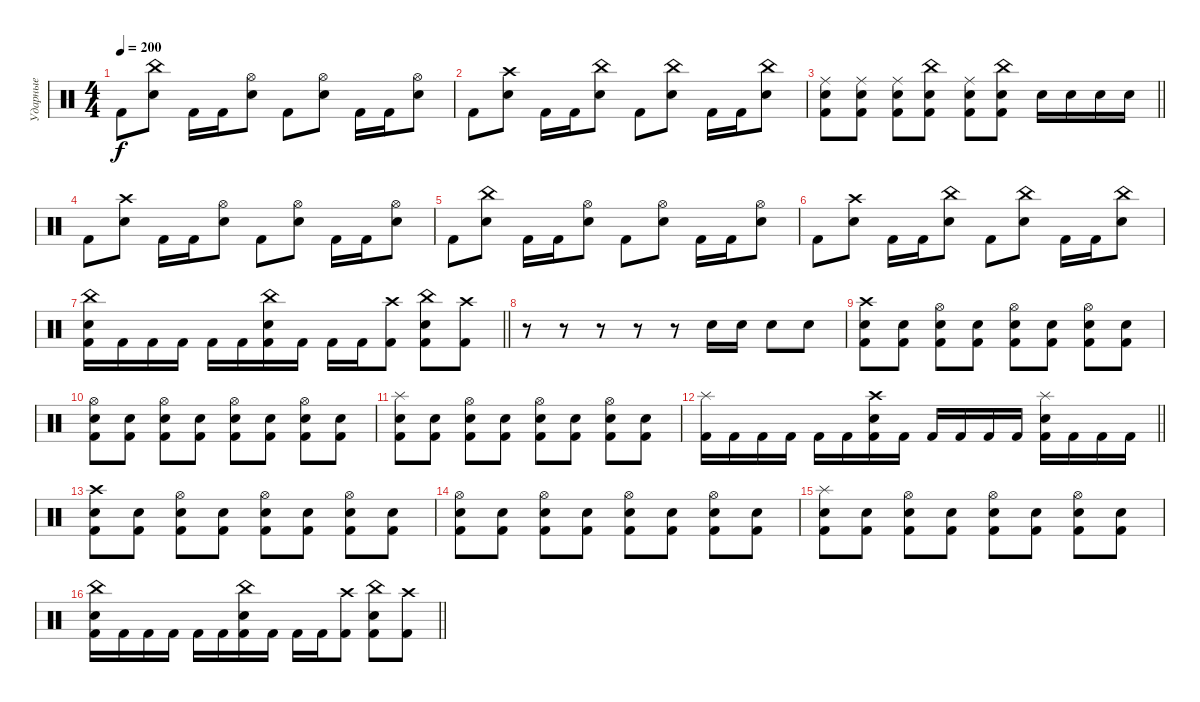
\track ("Ударные" "Ударные") {instrument percussion}
\staff {score}
\articulation defaults
\ts (4 4)
\tempo 200
\clef neutral
\ks c "Kick (hit) 2".8{dy f}
("Electric Snare (hit)" "China (hit)").8 "Kick (hit) 2".16 "Kick (hit) 2".16 ("Electric Snare (hit)" "Hi-Hat (open)").8 "Kick (hit) 2".8 ("Electric Snare (hit)" "Hi-Hat (open)").8 "Kick (hit) 2".16 "Kick (hit) 2".16 ("Electric Snare (hit)" "Hi-Hat (open)").8 |
"Kick (hit) 2".8 ("Electric Snare (hit)" "Crash high (hit)").8 "Kick (hit) 2".16 "Kick (hit) 2".16 ("Electric Snare (hit)" "China (hit)").8 "Kick (hit) 2".8 ("Electric Snare (hit)" "China (hit)").8 "Kick (hit) 2".16 "Kick (hit) 2".16 ("Electric Snare (hit)" "China (hit)").8 |
\barLineRight lightlight
("Kick (hit) 2" "Electric Snare (hit)" "Ride (middle)").8 ("Kick (hit) 2" "Electric Snare (hit)" "Ride (middle)").8 ("Kick (hit) 2" "Electric Snare (hit)" "Ride (middle)").8 ("Kick (hit) 2" "Electric Snare (hit)" "China (hit)").8 ("Kick (hit) 2" "Electric Snare (hit)" "Ride (middle)").8 ("Kick (hit) 2" "Electric Snare (hit)" "China (hit)").8 "Electric Snare (hit)".16 "Electric Snare (hit)".16 "Electric Snare (hit)".16 "Electric Snare (hit)".16 |
"Kick (hit) 2".8 ("Electric Snare (hit)" "Crash high (hit)").8 "Kick (hit) 2".16 "Kick (hit) 2".16 ("Electric Snare (hit)" "Hi-Hat (open)").8 "Kick (hit) 2".8 ("Electric Snare (hit)" "Hi-Hat (open)").8 "Kick (hit) 2".16 "Kick (hit) 2".16 ("Electric Snare (hit)" "Hi-Hat (open)").8 |
"Kick (hit) 2".8 ("Electric Snare (hit)" "China (hit)").8 "Kick (hit) 2".16 "Kick (hit) 2".16 ("Electric Snare (hit)" "Hi-Hat (open)").8 "Kick (hit) 2".8 ("Electric Snare (hit)" "Hi-Hat (open)").8 "Kick (hit) 2".16 "Kick (hit) 2".16 ("Electric Snare (hit)" "Hi-Hat (open)").8 |
"Kick (hit) 2".8 ("Electric Snare (hit)" "Crash high (hit)").8 "Kick (hit) 2".16 "Kick (hit) 2".16 ("Electric Snare (hit)" "China (hit)").8 "Kick (hit) 2".8 ("Electric Snare (hit)" "China (hit)").8 "Kick (hit) 2".16 "Kick (hit) 2".16 ("Electric Snare (hit)" "China (hit)").8 |
\barLineRight lightlight
("China (hit)" "Electric Snare (hit)" "Kick (hit) 2").16 "Kick (hit) 2".16 "Kick (hit) 2".16 "Kick (hit) 2".16 "Kick (hit) 2".16 "Kick (hit) 2".16 ("China (hit)" "Electric Snare (hit)" "Kick (hit) 2").16 "Kick (hit) 2".16 "Kick (hit) 2".16 "Kick (hit) 2".16 ("Crash high (hit)" "Kick (hit) 2").8 ("China (hit)" "Electric Snare (hit)" "Kick (hit) 2").8 ("Crash high (hit)" "Kick (hit) 2").8 |
r.8 r.8 r.8 r.8 r.8 "Electric Snare (hit)".16 "Electric Snare (hit)".16 "Electric Snare (hit)".8 "Electric Snare (hit)".8 |
("Kick (hit) 2" "Electric Snare (hit)" "Crash high (hit)").8 ("Kick (hit) 2" "Electric Snare (hit)").8 ("Kick (hit) 2" "Electric Snare (hit)" "Hi-Hat (open)").8 ("Kick (hit) 2" "Electric Snare (hit)").8 ("Kick (hit) 2" "Electric Snare (hit)" "Hi-Hat (open)").8 ("Kick (hit) 2" "Electric Snare (hit)").8 ("Kick (hit) 2" "Electric Snare (hit)" "Hi-Hat (open)").8 ("Kick (hit) 2" "Electric Snare (hit)").8 |
("Kick (hit) 2" "Electric Snare (hit)" "Hi-Hat (open)").8 ("Kick (hit) 2" "Electric Snare (hit)").8 ("Kick (hit) 2" "Electric Snare (hit)" "Hi-Hat (open)").8 ("Kick (hit) 2" "Electric Snare (hit)").8 ("Kick (hit) 2" "Electric Snare (hit)" "Hi-Hat (open)").8 ("Kick (hit) 2" "Electric Snare (hit)").8 ("Kick (hit) 2" "Electric Snare (hit)" "Hi-Hat (open)").8 ("Kick (hit) 2" "Electric Snare (hit)").8 |
("Kick (hit) 2" "Electric Snare (hit)" "Splash (hit)").8 ("Kick (hit) 2" "Electric Snare (hit)").8 ("Kick (hit) 2" "Electric Snare (hit)" "Hi-Hat (open)").8 ("Kick (hit) 2" "Electric Snare (hit)").8 ("Kick (hit) 2" "Electric Snare (hit)" "Hi-Hat (open)").8 ("Kick (hit) 2" "Electric Snare (hit)").8 ("Kick (hit) 2" "Electric Snare (hit)" "Hi-Hat (open)").8 ("Kick (hit) 2" "Electric Snare (hit)").8 |
\barLineRight lightlight
("Kick (hit) 2" "Splash (hit)").16 "Kick (hit) 2".16 "Kick (hit) 2".16 "Kick (hit) 2".16 "Kick (hit) 2".16 "Kick (hit) 2".16 ("Kick (hit) 2" "Electric Snare (hit)" "Crash high (hit)").16 "Kick (hit) 2".16 "Kick (hit) 2".16 "Kick (hit) 2".16 "Kick (hit) 2".16 "Kick (hit) 2".16 ("Kick (hit) 2" "Electric Snare (hit)" "Splash (hit)").16 "Kick (hit) 2".16 "Kick (hit) 2".16 "Kick (hit) 2".16 |
("Kick (hit) 2" "Electric Snare (hit)" "Crash high (hit)").8 ("Kick (hit) 2" "Electric Snare (hit)").8 ("Kick (hit) 2" "Electric Snare (hit)" "Hi-Hat (open)").8 ("Kick (hit) 2" "Electric Snare (hit)").8 ("Kick (hit) 2" "Electric Snare (hit)" "Hi-Hat (open)").8 ("Kick (hit) 2" "Electric Snare (hit)").8 ("Kick (hit) 2" "Electric Snare (hit)" "Hi-Hat (open)").8 ("Kick (hit) 2" "Electric Snare (hit)").8 |
("Kick (hit) 2" "Electric Snare (hit)" "Hi-Hat (open)").8 ("Kick (hit) 2" "Electric Snare (hit)").8 ("Kick (hit) 2" "Electric Snare (hit)" "Hi-Hat (open)").8 ("Kick (hit) 2" "Electric Snare (hit)").8 ("Kick (hit) 2" "Electric Snare (hit)" "Hi-Hat (open)").8 ("Kick (hit) 2" "Electric Snare (hit)").8 ("Kick (hit) 2" "Electric Snare (hit)" "Hi-Hat (open)").8 ("Kick (hit) 2" "Electric Snare (hit)").8 |
("Kick (hit) 2" "Electric Snare (hit)" "Splash (hit)").8 ("Kick (hit) 2" "Electric Snare (hit)").8 ("Kick (hit) 2" "Electric Snare (hit)" "Hi-Hat (open)").8 ("Kick (hit) 2" "Electric Snare (hit)").8 ("Kick (hit) 2" "Electric Snare (hit)" "Hi-Hat (open)").8 ("Kick (hit) 2" "Electric Snare (hit)").8 ("Kick (hit) 2" "Electric Snare (hit)" "Hi-Hat (open)").8 ("Kick (hit) 2" "Electric Snare (hit)").8 |
\barLineRight lightlight
("China (hit)" "Electric Snare (hit)" "Kick (hit) 2").16 "Kick (hit) 2".16 "Kick (hit) 2".16 "Kick (hit) 2".16 "Kick (hit) 2".16 "Kick (hit) 2".16 ("China (hit)" "Electric Snare (hit)" "Kick (hit) 2").16 "Kick (hit) 2".16 "Kick (hit) 2".16 "Kick (hit) 2".16 ("Crash high (hit)" "Kick (hit) 2").8 ("China (hit)" "Electric Snare (hit)" "Kick (hit) 2").8 ("Crash high (hit)" "Kick (hit) 2").8
